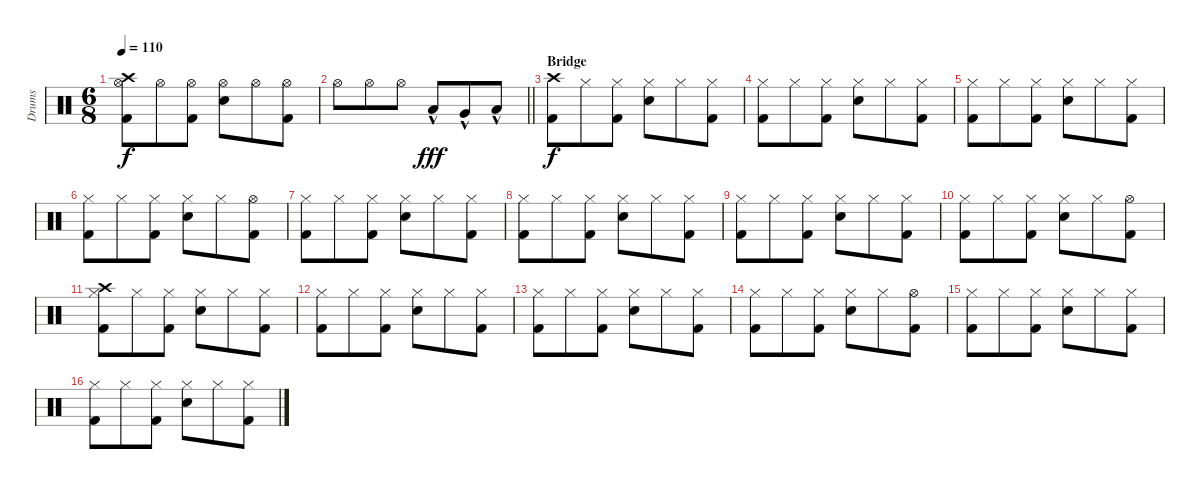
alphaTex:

\track ("Drums" "Drums") {instrument percussion}
\staff {score}
\articulation defaults
\ts (6 8)
\tempo 110
\clef neutral
\ks c
("Crash high (hit)" "Hi-Hat (open)" "Kick (hit) 2").8{dy f} "Hi-Hat (open)".8 ("Hi-Hat (open)" "Kick (hit) 2").8 ("Hi-Hat (open)" "Snare (hit) 2").8 "Hi-Hat (open)".8 ("Hi-Hat (open)" "Kick (hit) 2").8 |
\barLineRight lightlight "Hi-Hat (open)".8 "Hi-Hat (open)".8 "Hi-Hat (open)".8 "Low Tom (hit)"{hac}.8{dy fff} "Very Low Tom (hit)"{hac}.8 "Low Floor Tom (hit)"{hac}.8
|
\section ("" "Bridge")
("Crash high (hit)" "Kick (hit) 2").8{dy f} "Hi-Hat (closed)".8 ("Hi-Hat (closed)" "Kick (hit) 2").8 ("Hi-Hat (closed)" "Snare (hit) 2").8 "Hi-Hat (closed)".8 ("Hi-Hat (closed)" "Kick (hit) 2").8 |
("Hi-Hat (closed)" "Kick (hit) 2").8 "Hi-Hat (closed)".8 ("Hi-Hat (closed)" "Kick (hit) 2").8 ("Hi-Hat (closed)" "Snare (hit) 2").8 "Hi-Hat (closed)".8 ("Hi-Hat (closed)" "Kick (hit) 2").8 |
("Hi-Hat (closed)" "Kick (hit) 2").8 "Hi-Hat (closed)".8 ("Hi-Hat (closed)" "Kick (hit) 2").8 ("Hi-Hat (closed)" "Snare (hit) 2").8 "Hi-Hat (closed)".8 ("Hi-Hat (closed)" "Kick (hit) 2").8 |
("Hi-Hat (closed)" "Kick (hit) 2").8 "Hi-Hat (closed)".8 ("Hi-Hat (closed)" "Kick (hit) 2").8 ("Hi-Hat (closed)" "Snare (hit) 2").8 "Hi-Hat (closed)".8 ("Hi-Hat (open)" "Kick (hit) 2").8 |
("Hi-Hat (closed)" "Kick (hit) 2").8 "Hi-Hat (closed)".8 ("Hi-Hat (closed)" "Kick (hit) 2").8 ("Hi-Hat (closed)" "Snare (hit) 2").8 "Hi-Hat (closed)".8 ("Hi-Hat (closed)" "Kick (hit) 2").8 |
("Hi-Hat (closed)" "Kick (hit) 2").8 "Hi-Hat (closed)".8 ("Hi-Hat (closed)" "Kick (hit) 2").8 ("Hi-Hat (closed)" "Snare (hit) 2").8 "Hi-Hat (closed)".8 ("Hi-Hat (closed)" "Kick (hit) 2").8 |
("Hi-Hat (closed)" "Kick (hit) 2").8 "Hi-Hat (closed)".8 ("Hi-Hat (closed)" "Kick (hit) 2").8 ("Hi-Hat (closed)" "Snare (hit) 2").8 "Hi-Hat (closed)".8 ("Hi-Hat (closed)" "Kick (hit) 2").8 |
("Hi-Hat (closed)" "Kick (hit) 2").8 "Hi-Hat (closed)".8 ("Hi-Hat (closed)" "Kick (hit) 2").8 ("Hi-Hat (closed)" "Snare (hit) 2").8 "Hi-Hat (closed)".8 ("Hi-Hat (open)" "Kick (hit) 2").8 |
("Crash high (hit)" "Hi-Hat (closed)" "Kick (hit) 2").8 "Hi-Hat (closed)".8 ("Hi-Hat (closed)" "Kick (hit) 2").8 ("Hi-Hat (closed)" "Snare (hit) 2").8 "Hi-Hat (closed)".8 ("Hi-Hat (closed)" "Kick (hit) 2").8 |
("Hi-Hat (closed)" "Kick (hit) 2").8 "Hi-Hat (closed)".8 ("Hi-Hat (closed)" "Kick (hit) 2").8 ("Hi-Hat (closed)" "Snare (hit) 2").8 "Hi-Hat (closed)".8 ("Hi-Hat (closed)" "Kick (hit) 2").8 |
("Hi-Hat (closed)" "Kick (hit) 2").8 "Hi-Hat (closed)".8 ("Hi-Hat (closed)" "Kick (hit) 2").8 ("Hi-Hat (closed)" "Snare (hit) 2").8 "Hi-Hat (closed)".8 ("Hi-Hat (closed)" "Kick (hit) 2").8 |
("Hi-Hat (closed)" "Kick (hit) 2").8 "Hi-Hat (closed)".8 ("Hi-Hat (closed)" "Kick (hit) 2").8 ("Hi-Hat (closed)" "Snare (hit) 2").8 "Hi-Hat (closed)".8 ("Hi-Hat (open)" "Kick (hit) 2").8 |
("Hi-Hat (closed)" "Kick (hit) 2").8 "Hi-Hat (closed)".8 ("Hi-Hat (closed)" "Kick (hit) 2").8 ("Hi-Hat (closed)" "Snare (hit) 2").8 "Hi-Hat (closed)".8 ("Hi-Hat (closed)" "Kick (hit) 2").8 |
("Hi-Hat (closed)" "Kick (hit) 2").8 "Hi-Hat (closed)".8 ("Hi-Hat (closed)" "Kick (hit) 2").8 ("Hi-Hat (closed)" "Snare (hit) 2").8 "Hi-Hat (closed)".8 ("Hi-Hat (closed)" "Kick (hit) 2").8
